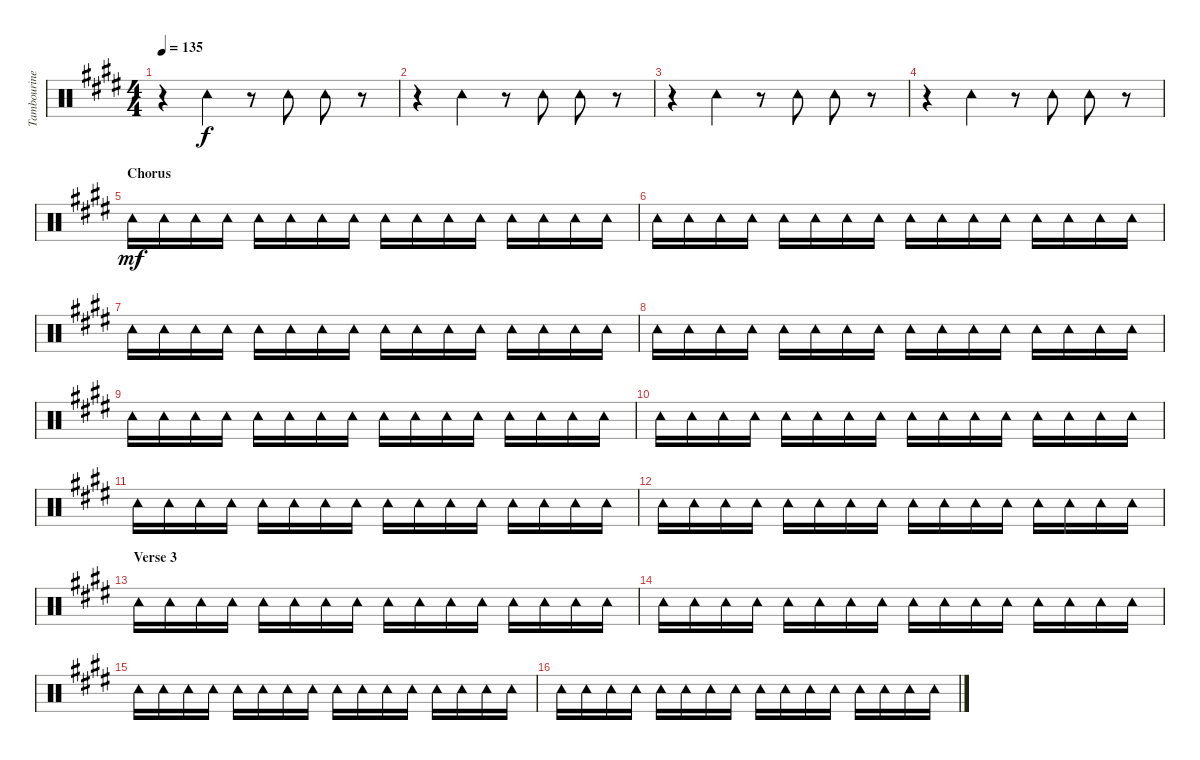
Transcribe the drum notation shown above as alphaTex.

\track ("Tambourine" "Tambourine") {instrument percussion}
\staff {score}
\articulation defaults
\ts (4 4)
\tempo 135
\clef neutral
\ks e
r.4{dy f} "Tambourine (hit)".4 r.8 "Tambourine (hit)".8 "Tambourine (hit)".8 r.8 |
r.4 "Tambourine (hit)".4 r.8 "Tambourine (hit)".8 "Tambourine (hit)".8 r.8 |
r.4 "Tambourine (hit)".4 r.8 "Tambourine (hit)".8 "Tambourine (hit)".8 r.8 |
r.4 "Tambourine (hit)".4 r.8 "Tambourine (hit)".8 "Tambourine (hit)".8 r.8 |
\section ("" "Chorus")
"Tambourine (hit)".16{dy mf} "Tambourine (hit)".16 "Tambourine (hit)".16 "Tambourine (hit)".16 "Tambourine (hit)".16 "Tambourine (hit)".16 "Tambourine (hit)".16 "Tambourine (hit)".16 "Tambourine (hit)".16 "Tambourine (hit)".16 "Tambourine (hit)".16 "Tambourine (hit)".16 "Tambourine (hit)".16 "Tambourine (hit)".16 "Tambourine (hit)".16 "Tambourine (hit)".16 |
"Tambourine (hit)".16 "Tambourine (hit)".16 "Tambourine (hit)".16 "Tambourine (hit)".16 "Tambourine (hit)".16 "Tambourine (hit)".16 "Tambourine (hit)".16 "Tambourine (hit)".16 "Tambourine (hit)".16 "Tambourine (hit)".16 "Tambourine (hit)".16 "Tambourine (hit)".16 "Tambourine (hit)".16 "Tambourine (hit)".16 "Tambourine (hit)".16 "Tambourine (hit)".16 |
"Tambourine (hit)".16 "Tambourine (hit)".16 "Tambourine (hit)".16 "Tambourine (hit)".16 "Tambourine (hit)".16 "Tambourine (hit)".16 "Tambourine (hit)".16 "Tambourine (hit)".16 "Tambourine (hit)".16 "Tambourine (hit)".16 "Tambourine (hit)".16 "Tambourine (hit)".16 "Tambourine (hit)".16 "Tambourine (hit)".16 "Tambourine (hit)".16 "Tambourine (hit)".16 |
"Tambourine (hit)".16 "Tambourine (hit)".16 "Tambourine (hit)".16 "Tambourine (hit)".16 "Tambourine (hit)".16 "Tambourine (hit)".16 "Tambourine (hit)".16 "Tambourine (hit)".16 "Tambourine (hit)".16 "Tambourine (hit)".16 "Tambourine (hit)".16 "Tambourine (hit)".16 "Tambourine (hit)".16 "Tambourine (hit)".16 "Tambourine (hit)".16 "Tambourine (hit)".16 |
"Tambourine (hit)".16 "Tambourine (hit)".16 "Tambourine (hit)".16 "Tambourine (hit)".16 "Tambourine (hit)".16 "Tambourine (hit)".16 "Tambourine (hit)".16 "Tambourine (hit)".16 "Tambourine (hit)".16 "Tambourine (hit)".16 "Tambourine (hit)".16 "Tambourine (hit)".16 "Tambourine (hit)".16 "Tambourine (hit)".16 "Tambourine (hit)".16 "Tambourine (hit)".16 |
"Tambourine (hit)".16 "Tambourine (hit)".16 "Tambourine (hit)".16 "Tambourine (hit)".16 "Tambourine (hit)".16 "Tambourine (hit)".16 "Tambourine (hit)".16 "Tambourine (hit)".16 "Tambourine (hit)".16 "Tambourine (hit)".16 "Tambourine (hit)".16 "Tambourine (hit)".16 "Tambourine (hit)".16 "Tambourine (hit)".16 "Tambourine (hit)".16 "Tambourine (hit)".16 |
"Tambourine (hit)".16 "Tambourine (hit)".16 "Tambourine (hit)".16 "Tambourine (hit)".16 "Tambourine (hit)".16 "Tambourine (hit)".16 "Tambourine (hit)".16 "Tambourine (hit)".16 "Tambourine (hit)".16 "Tambourine (hit)".16 "Tambourine (hit)".16 "Tambourine (hit)".16 "Tambourine (hit)".16 "Tambourine (hit)".16 "Tambourine (hit)".16 "Tambourine (hit)".16 |
"Tambourine (hit)".16 "Tambourine (hit)".16 "Tambourine (hit)".16 "Tambourine (hit)".16 "Tambourine (hit)".16 "Tambourine (hit)".16 "Tambourine (hit)".16 "Tambourine (hit)".16 "Tambourine (hit)".16 "Tambourine (hit)".16 "Tambourine (hit)".16 "Tambourine (hit)".16 "Tambourine (hit)".16 "Tambourine (hit)".16 "Tambourine (hit)".16 "Tambourine (hit)".16 |
\section ("" "Verse 3")
"Tambourine (hit)".16 "Tambourine (hit)".16 "Tambourine (hit)".16 "Tambourine (hit)".16 "Tambourine (hit)".16 "Tambourine (hit)".16 "Tambourine (hit)".16 "Tambourine (hit)".16 "Tambourine (hit)".16 "Tambourine (hit)".16 "Tambourine (hit)".16 "Tambourine (hit)".16 "Tambourine (hit)".16 "Tambourine (hit)".16 "Tambourine (hit)".16 "Tambourine (hit)".16 |
"Tambourine (hit)".16 "Tambourine (hit)".16 "Tambourine (hit)".16 "Tambourine (hit)".16 "Tambourine (hit)".16 "Tambourine (hit)".16 "Tambourine (hit)".16 "Tambourine (hit)".16 "Tambourine (hit)".16 "Tambourine (hit)".16 "Tambourine (hit)".16 "Tambourine (hit)".16 "Tambourine (hit)".16 "Tambourine (hit)".16 "Tambourine (hit)".16 "Tambourine (hit)".16 |
"Tambourine (hit)".16 "Tambourine (hit)".16 "Tambourine (hit)".16 "Tambourine (hit)".16 "Tambourine (hit)".16 "Tambourine (hit)".16 "Tambourine (hit)".16 "Tambourine (hit)".16 "Tambourine (hit)".16 "Tambourine (hit)".16 "Tambourine (hit)".16 "Tambourine (hit)".16 "Tambourine (hit)".16 "Tambourine (hit)".16 "Tambourine (hit)".16 "Tambourine (hit)".16 |
"Tambourine (hit)".16 "Tambourine (hit)".16 "Tambourine (hit)".16 "Tambourine (hit)".16 "Tambourine (hit)".16 "Tambourine (hit)".16 "Tambourine (hit)".16 "Tambourine (hit)".16 "Tambourine (hit)".16 "Tambourine (hit)".16 "Tambourine (hit)".16 "Tambourine (hit)".16 "Tambourine (hit)".16 "Tambourine (hit)".16 "Tambourine (hit)".16 "Tambourine (hit)".16
